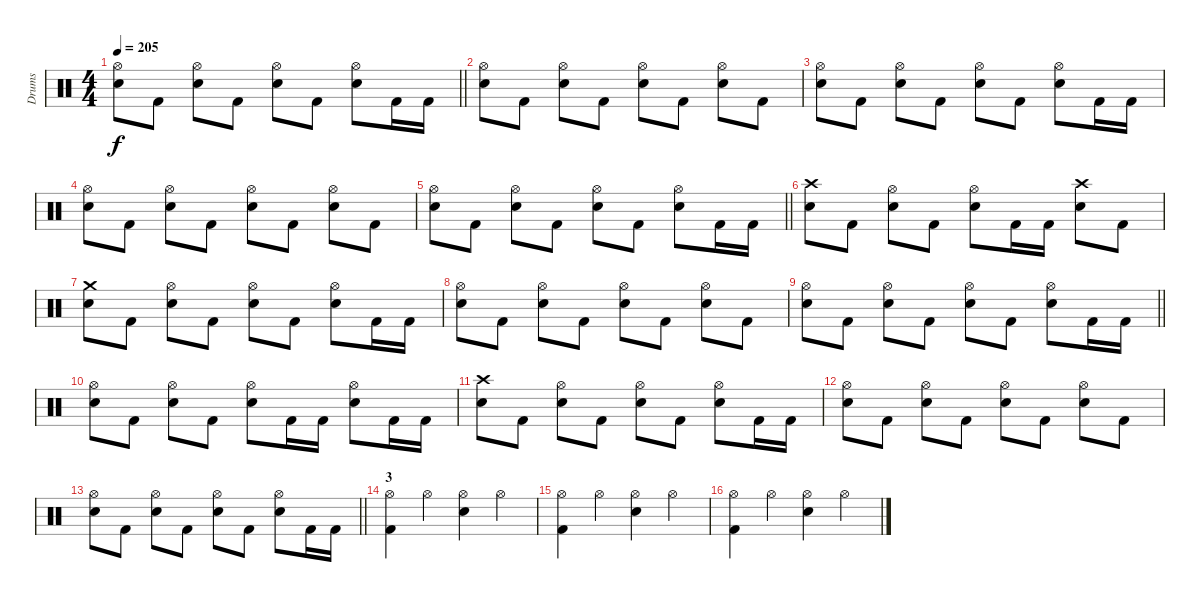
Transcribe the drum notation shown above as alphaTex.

\track ("Drums" "Drums") {instrument percussion}
\staff {score}
\articulation defaults
\ts (4 4)
\tempo 205
\clef neutral
\barLineRight lightlight
\ks c
("Hi-Hat (open)" "Electric Snare (hit)").8{dy f} "Kick (hit) 2".8 ("Hi-Hat (open)" "Electric Snare (hit)").8 "Kick (hit) 2".8 ("Hi-Hat (open)" "Electric Snare (hit)").8 "Kick (hit) 2".8 ("Hi-Hat (open)" "Electric Snare (hit)").8 "Kick (hit) 2".16 "Kick (hit) 2".16 |
("Hi-Hat (open)" "Electric Snare (hit)").8 "Kick (hit) 2".8 ("Hi-Hat (open)" "Electric Snare (hit)").8 "Kick (hit) 2".8 ("Hi-Hat (open)" "Electric Snare (hit)").8 "Kick (hit) 2".8 ("Hi-Hat (open)" "Electric Snare (hit)").8 "Kick (hit) 2".8 |
("Hi-Hat (open)" "Electric Snare (hit)").8 "Kick (hit) 2".8 ("Hi-Hat (open)" "Electric Snare (hit)").8 "Kick (hit) 2".8 ("Hi-Hat (open)" "Electric Snare (hit)").8 "Kick (hit) 2".8 ("Hi-Hat (open)" "Electric Snare (hit)").8 "Kick (hit) 2".16 "Kick (hit) 2".16 |
("Hi-Hat (open)" "Electric Snare (hit)").8 "Kick (hit) 2".8 ("Hi-Hat (open)" "Electric Snare (hit)").8 "Kick (hit) 2".8 ("Hi-Hat (open)" "Electric Snare (hit)").8 "Kick (hit) 2".8 ("Hi-Hat (open)" "Electric Snare (hit)").8 "Kick (hit) 2".8 |
\barLineRight lightlight
("Hi-Hat (open)" "Electric Snare (hit)").8 "Kick (hit) 2".8 ("Hi-Hat (open)" "Electric Snare (hit)").8 "Kick (hit) 2".8 ("Hi-Hat (open)" "Electric Snare (hit)").8 "Kick (hit) 2".8 ("Hi-Hat (open)" "Electric Snare (hit)").8 "Kick (hit) 2".16 "Kick (hit) 2".16 |
("Crash high (hit)" "Electric Snare (hit)").8 "Kick (hit) 2".8 ("Hi-Hat (open)" "Electric Snare (hit)").8 "Kick (hit) 2".8 ("Hi-Hat (open)" "Electric Snare (hit)").8 "Kick (hit) 2".16 "Kick (hit) 2".16 ("Crash high (hit)" "Electric Snare (hit)").8 "Kick (hit) 2".8 |
("Crash medium (hit)" "Electric Snare (hit)").8 "Kick (hit) 2".8 ("Hi-Hat (open)" "Electric Snare (hit)").8 "Kick (hit) 2".8 ("Hi-Hat (open)" "Electric Snare (hit)").8 "Kick (hit) 2".8 ("Hi-Hat (open)" "Electric Snare (hit)").8 "Kick (hit) 2".16 "Kick (hit) 2".16 |
("Hi-Hat (open)" "Electric Snare (hit)").8 "Kick (hit) 2".8 ("Hi-Hat (open)" "Electric Snare (hit)").8 "Kick (hit) 2".8 ("Hi-Hat (open)" "Electric Snare (hit)").8 "Kick (hit) 2".8 ("Hi-Hat (open)" "Electric Snare (hit)").8 "Kick (hit) 2".8 |
\barLineRight lightlight
("Hi-Hat (open)" "Electric Snare (hit)").8 "Kick (hit) 2".8 ("Hi-Hat (open)" "Electric Snare (hit)").8 "Kick (hit) 2".8 ("Hi-Hat (open)" "Electric Snare (hit)").8 "Kick (hit) 2".8 ("Hi-Hat (open)" "Electric Snare (hit)").8 "Kick (hit) 2".16 "Kick (hit) 2".16 |
("Hi-Hat (open)" "Electric Snare (hit)").8 "Kick (hit) 2".8 ("Hi-Hat (open)" "Electric Snare (hit)").8 "Kick (hit) 2".8 ("Hi-Hat (open)" "Electric Snare (hit)").8 "Kick (hit) 2".16 "Kick (hit) 2".16 ("Hi-Hat (open)" "Electric Snare (hit)").8 "Kick (hit) 2".16 "Kick (hit) 2".16 |
("Crash high (hit)" "Electric Snare (hit)").8 "Kick (hit) 2".8 ("Hi-Hat (open)" "Electric Snare (hit)").8 "Kick (hit) 2".8 ("Hi-Hat (open)" "Electric Snare (hit)").8 "Kick (hit) 2".8 ("Hi-Hat (open)" "Electric Snare (hit)").8 "Kick (hit) 2".16 "Kick (hit) 2".16 |
("Hi-Hat (open)" "Electric Snare (hit)").8 "Kick (hit) 2".8 ("Hi-Hat (open)" "Electric Snare (hit)").8 "Kick (hit) 2".8 ("Hi-Hat (open)" "Electric Snare (hit)").8 "Kick (hit) 2".8 ("Hi-Hat (open)" "Electric Snare (hit)").8 "Kick (hit) 2".8 |
\barLineRight lightlight
("Hi-Hat (open)" "Electric Snare (hit)").8 "Kick (hit) 2".8 ("Hi-Hat (open)" "Electric Snare (hit)").8 "Kick (hit) 2".8 ("Hi-Hat (open)" "Electric Snare (hit)").8 "Kick (hit) 2".8 ("Hi-Hat (open)" "Electric Snare (hit)").8 "Kick (hit) 2".16 "Kick (hit) 2".16 |
\section ("" "3")
("Hi-Hat (open)" "Kick (hit) 2").4 "Hi-Hat (open)".4 ("Hi-Hat (open)" "Electric Snare (hit)").4 "Hi-Hat (open)".4 |
("Hi-Hat (open)" "Kick (hit) 2").4 "Hi-Hat (open)".4 ("Hi-Hat (open)" "Electric Snare (hit)").4 "Hi-Hat (open)".4 |
("Hi-Hat (open)" "Kick (hit) 2").4 "Hi-Hat (open)".4 ("Hi-Hat (open)" "Electric Snare (hit)").4 "Hi-Hat (open)".4
